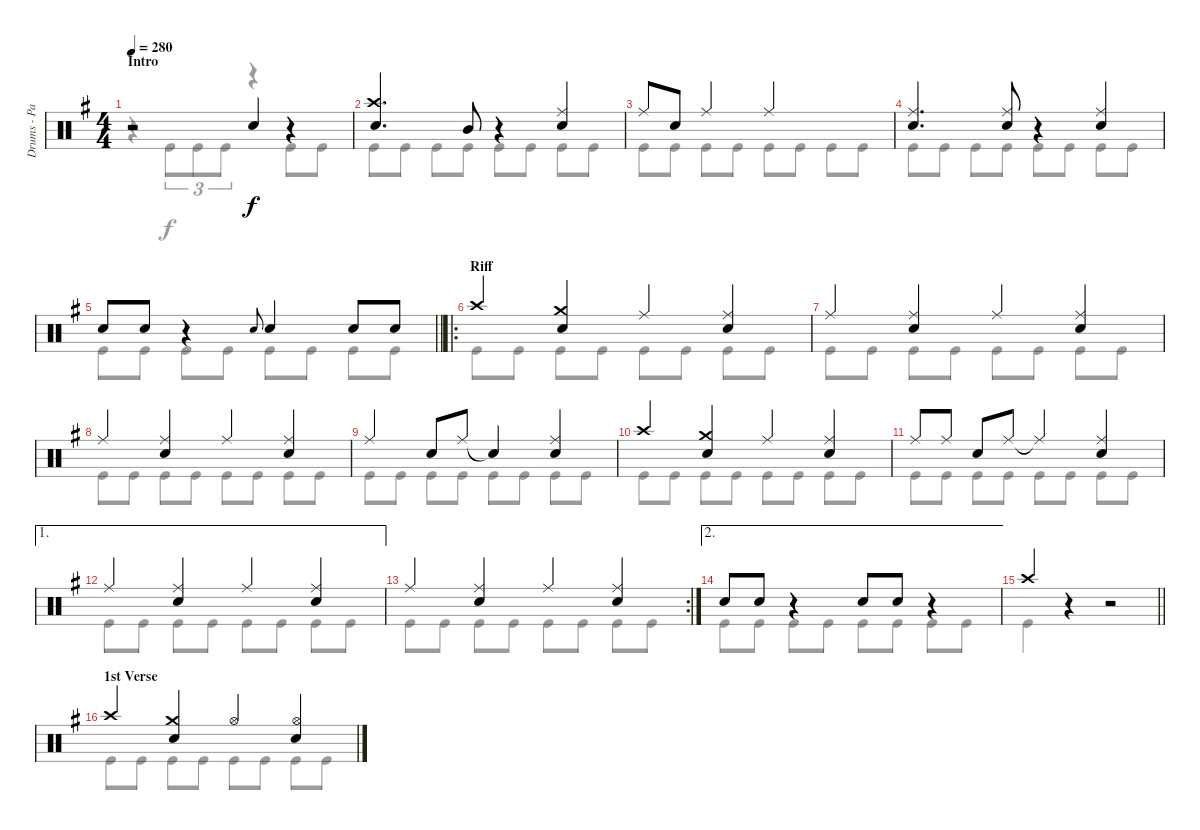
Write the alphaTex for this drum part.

\track ("Drums - Patrick Johansson" "Drums - Pa") {instrument percussion}
\staff {score}
\articulation defaults
\voice
\ts (4 4)
\section ("" "Intro")
\tempo 280
\clef neutral
\ks eminor
r.2{dy f} "Snare (hit) 2".4 r.4 |
("Crash high (hit)" "Snare (hit) 2").4{d} "Mid Tom (hit)".8 r.4 ("Ride (middle)" "Snare (hit) 2").4 |
"Ride (middle)".8 "Snare (hit) 2".8 "Ride (middle)".4 "Ride (middle)".2 |
("Ride (middle)" "Snare (hit) 2").4{d} ("Ride (middle)" "Snare (hit) 2").8 r.4 ("Ride (middle)" "Snare (hit) 2").4 |
\barLineRight lightlight "Snare (hit) 2".8 "Snare (hit) 2".8
r.4 "Snare (hit) 2".8{gr onbeat} "Snare (hit) 2".4 "Snare (hit) 2".8 "Snare (hit) 2".8 |
\ro
\section ("" "Riff")
"Crash high (hit)".4 ("Crash medium (hit)" "Snare (hit) 2").4 "Ride (middle)".4 ("Ride (middle)" "Snare (hit) 2").4 |
"Ride (middle)".4 ("Ride (middle)" "Snare (hit) 2").4 "Ride (middle)".4 ("Ride (middle)" "Snare (hit) 2").4 |
"Ride (middle)".4 ("Ride (middle)" "Snare (hit) 2").4 "Ride (middle)".4 ("Ride (middle)" "Snare (hit) 2").4 |
"Ride (middle)".4 "Snare (hit) 2".8 "Ride (middle)".8 "Snare (hit)"{t}.4 ("Ride (middle)" "Snare (hit) 2").4 |
"Crash high (hit)".4 ("Crash medium (hit)" "Snare (hit) 2").4 "Ride (middle)".4 ("Ride (middle)" "Snare (hit) 2").4 |
"Ride (middle)".8 "Ride (middle)".8 "Snare (hit) 2".8 "Ride (middle)".8 "Ride (middle)"{t}.4 ("Ride (middle)" "Snare (hit) 2").4 |
\ae 1 "Ride (middle)".4
("Ride (middle)" "Snare (hit) 2").4 "Ride (middle)".4 ("Ride (middle)" "Snare (hit) 2").4 |
\rc 2 "Ride (middle)".4
("Ride (middle)" "Snare (hit) 2").4 "Ride (middle)".4 ("Ride (middle)" "Snare (hit) 2").4 |
\ae 2 "Snare (hit) 2".8 "Snare (hit) 2".8
r.4 "Snare (hit) 2".8 "Snare (hit) 2".8 r.4 |
\barLineRight lightlight "Crash high (hit)".4
r.4 r.2 |
\section ("" "1st Verse")
"Crash high (hit)".4 ("Crash medium (hit)" "Snare (hit) 2").4 "Hi-Hat (open)".4 ("Hi-Hat (open)" "Snare (hit) 2").4
\voice
\clef neutral
\ottava regular
\simile none
\ks eminor
r.4{dy f} "Kick (hit)".8{tu (3 2)} "Kick (hit)".8{tu (3 2)} "Kick (hit)".8{tu (3 2)} r.4 "Kick (hit)".8 "Kick (hit)".8 |
"Kick (hit)".8 "Kick (hit)".8 "Kick (hit)".8 "Kick (hit)".8 "Kick (hit)".8 "Kick (hit)".8 "Kick (hit)".8 "Kick (hit)".8 |
"Kick (hit)".8 "Kick (hit)".8 "Kick (hit)".8 "Kick (hit)".8 "Kick (hit)".8 "Kick (hit)".8 "Kick (hit)".8 "Kick (hit)".8 |
"Kick (hit)".8 "Kick (hit)".8 "Kick (hit)".8 "Kick (hit)".8 "Kick (hit)".8 "Kick (hit)".8 "Kick (hit)".8 "Kick (hit)".8 |
\barLineRight lightlight "Kick (hit)".8 "Kick (hit)".8 "Kick (hit)".8 "Kick (hit)".8 "Kick (hit)".8 "Kick (hit)".8 "Kick (hit)".8 "Kick (hit)".8
|
"Kick (hit)".8 "Kick (hit)".8 "Kick (hit)".8 "Kick (hit)".8 "Kick (hit)".8 "Kick (hit)".8 "Kick (hit)".8 "Kick (hit)".8 |
"Kick (hit)".8 "Kick (hit)".8 "Kick (hit)".8 "Kick (hit)".8 "Kick (hit)".8 "Kick (hit)".8 "Kick (hit)".8 "Kick (hit)".8 |
"Kick (hit)".8 "Kick (hit)".8 "Kick (hit)".8 "Kick (hit)".8 "Kick (hit)".8 "Kick (hit)".8 "Kick (hit)".8 "Kick (hit)".8 |
"Kick (hit)".8 "Kick (hit)".8 "Kick (hit)".8 "Kick (hit)".8 "Kick (hit)".8 "Kick (hit)".8 "Kick (hit)".8 "Kick (hit)".8 |
"Kick (hit)".8 "Kick (hit)".8 "Kick (hit)".8 "Kick (hit)".8 "Kick (hit)".8 "Kick (hit)".8 "Kick (hit)".8 "Kick (hit)".8 |
"Kick (hit)".8 "Kick (hit)".8 "Kick (hit)".8 "Kick (hit)".8 "Kick (hit)".8 "Kick (hit)".8 "Kick (hit)".8 "Kick (hit)".8 |
"Kick (hit)".8 "Kick (hit)".8 "Kick (hit)".8 "Kick (hit)".8 "Kick (hit)".8 "Kick (hit)".8 "Kick (hit)".8 "Kick (hit)".8 |
"Kick (hit)".8 "Kick (hit)".8 "Kick (hit)".8 "Kick (hit)".8 "Kick (hit)".8 "Kick (hit)".8 "Kick (hit)".8 "Kick (hit)".8 |
"Kick (hit)".8 "Kick (hit)".8 "Kick (hit)".8 "Kick (hit)".8 "Kick (hit)".8 "Kick (hit)".8 "Kick (hit)".8 "Kick (hit)".8 |
\barLineRight lightlight "Kick (hit)".4
r.4 r.2 |
"Kick (hit)".8 "Kick (hit)".8 "Kick (hit)".8 "Kick (hit)".8 "Kick (hit)".8 "Kick (hit)".8 "Kick (hit)".8 "Kick (hit)".8
